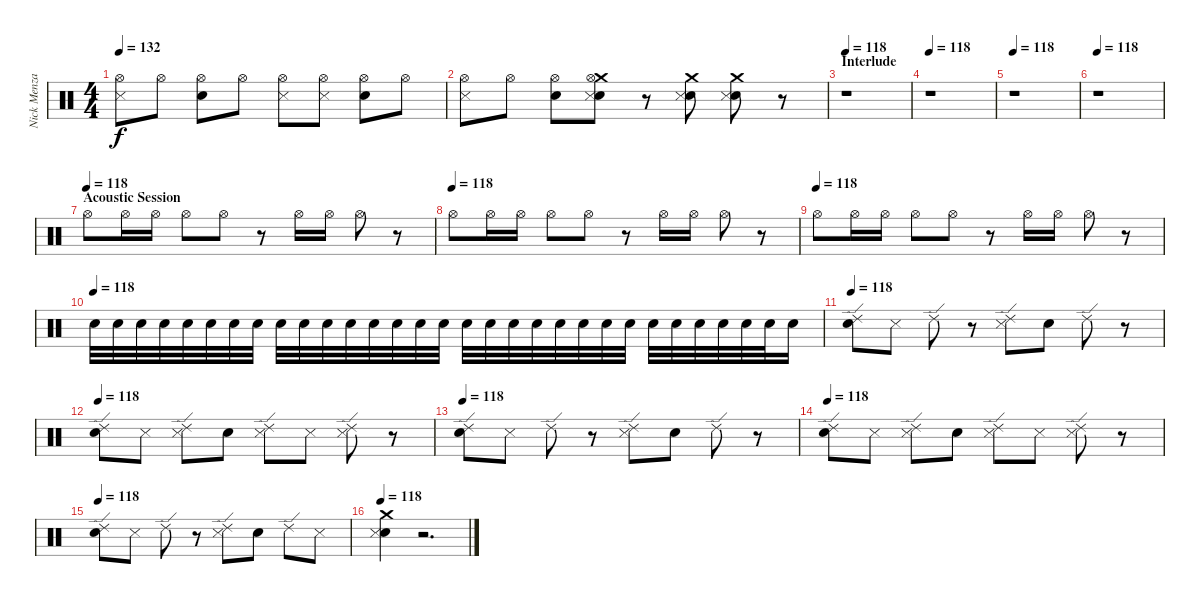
\track ("Nick Menza (Drums)" "Nick Menza") {instrument percussion}
\staff {score}
\articulation defaults
\ts (4 4)
\tempo 132
\clef neutral
\ks c
("Hi-Hat (open)" "Metronome (hit)").8{dy f} "Hi-Hat (open)".8 ("Electric Snare (hit)" "Hi-Hat (open)").8 "Hi-Hat (open)".8 ("Hi-Hat (open)" "Metronome (hit)").8 ("Hi-Hat (open)" "Metronome (hit)").8 ("Hi-Hat (open)" "Electric Snare (hit)").8 "Hi-Hat (open)".8 |
("Hi-Hat (open)" "Metronome (hit)").8 "Hi-Hat (open)".8 ("Electric Snare (hit)" "Hi-Hat (open)").8 ("Electric Snare (hit)" "Crash medium (hit)" "Metronome (hit)" "Hi-Hat (open)").8 r.8 ("Electric Snare (hit)" "Crash medium (hit)" "Metronome (hit)").8 ("Electric Snare (hit)" "Metronome (hit)" "Crash medium (hit)").8 r.8 |
\section ("" "Interlude")
\tempo 118
r.1 |
\tempo 118
r.1 |
\tempo 118
r.1 |
\tempo 118
r.1 |
\section ("" "Acoustic Session")
\tempo (118)
"Hi-Hat (open)".8 "Hi-Hat (open)".16 "Hi-Hat (open)".16 "Hi-Hat (open)".8 "Hi-Hat (open)".8 r.8 "Hi-Hat (open)".16 "Hi-Hat (open)".16 "Hi-Hat (open)".8 r.8 |
\tempo (118)
"Hi-Hat (open)".8 "Hi-Hat (open)".16 "Hi-Hat (open)".16 "Hi-Hat (open)".8 "Hi-Hat (open)".8 r.8 "Hi-Hat (open)".16 "Hi-Hat (open)".16 "Hi-Hat (open)".8 r.8 |
\tempo (118)
"Hi-Hat (open)".8 "Hi-Hat (open)".16 "Hi-Hat (open)".16 "Hi-Hat (open)".8 "Hi-Hat (open)".8 r.8 "Hi-Hat (open)".16 "Hi-Hat (open)".16 "Hi-Hat (open)".8 r.8 |
\tempo (118)
"Electric Snare (hit)".32 "Electric Snare (hit)".32{volume 4} "Electric Snare (hit)".32{volume 4} "Electric Snare (hit)".32{volume 4} "Electric Snare (hit)".32{volume 5} "Electric Snare (hit)".32{volume 5} "Electric Snare (hit)".32{volume 5} "Electric Snare (hit)".32{volume 5} "Electric Snare (hit)".32{volume 6} "Electric Snare (hit)".32{volume 6} "Electric Snare (hit)".32{volume 6} "Electric Snare (hit)".32{volume 6} "Electric Snare (hit)".32{volume 7} "Electric Snare (hit)".32{volume 7} "Electric Snare (hit)".32{volume 7} "Electric Snare (hit)".32{volume 7} "Electric Snare (hit)".32{volume 8} "Electric Snare (hit)".32{volume 8} "Electric Snare (hit)".32{volume 8} "Electric Snare (hit)".32{volume 8} "Electric Snare (hit)".32{volume 8} "Electric Snare (hit)".32{volume 9} "Electric Snare (hit)".32{volume 9} "Electric Snare (hit)".32{volume 9} "Electric Snare (hit)".32{volume 9} "Electric Snare (hit)".32{volume 10} "Electric Snare (hit)".32{volume 10} "Electric Snare (hit)".32{volume 10} "Electric Snare (hit)".32{volume 10} "Electric Snare (hit)".32{volume 10} "Electric Snare (hit)".16{volume 11} |
\tempo 118
("Ride (edge) 2" "Electric Snare (hit)").8{volume 16} "Metronome (hit)".8 "Ride (edge) 2".8 r.8 ("Ride (edge) 2" "Metronome (hit)").8 "Electric Snare (hit)".8 "Ride (edge) 2".8 r.8 |
\tempo 118
("Ride (edge) 2" "Electric Snare (hit)").8 "Metronome (hit)".8 ("Ride (edge) 2" "Metronome (hit)").8 "Electric Snare (hit)".8 ("Metronome (hit)" "Ride (edge) 2").8 "Metronome (hit)".8 ("Metronome (hit)" "Ride (edge) 2").8 r.8 |
\tempo 118
("Electric Snare (hit)" "Ride (edge) 2").8 "Metronome (hit)".8 "Ride (edge) 2".8 r.8 ("Ride (edge) 2" "Metronome (hit)").8 "Electric Snare (hit)".8 "Ride (edge) 2".8 r.8 |
\tempo 118
("Electric Snare (hit)" "Ride (edge) 2").8 "Metronome (hit)".8 ("Metronome (hit)" "Ride (edge) 2").8 "Electric Snare (hit)".8 ("Metronome (hit)" "Ride (edge) 2").8 "Metronome (hit)".8 ("Ride (edge) 2" "Metronome (hit)").8 r.8 |
\tempo 118
("Ride (edge) 2" "Electric Snare (hit)").8 "Metronome (hit)".8 "Ride (edge) 2".8 r.8 ("Ride (edge) 2" "Metronome (hit)").8 "Electric Snare (hit)".8 "Ride (edge) 2".8 "Metronome (hit)".8 |
\tempo 118
("Crash medium (hit)" "Electric Snare (hit)" "Metronome (hit)").4 r.2{d}
